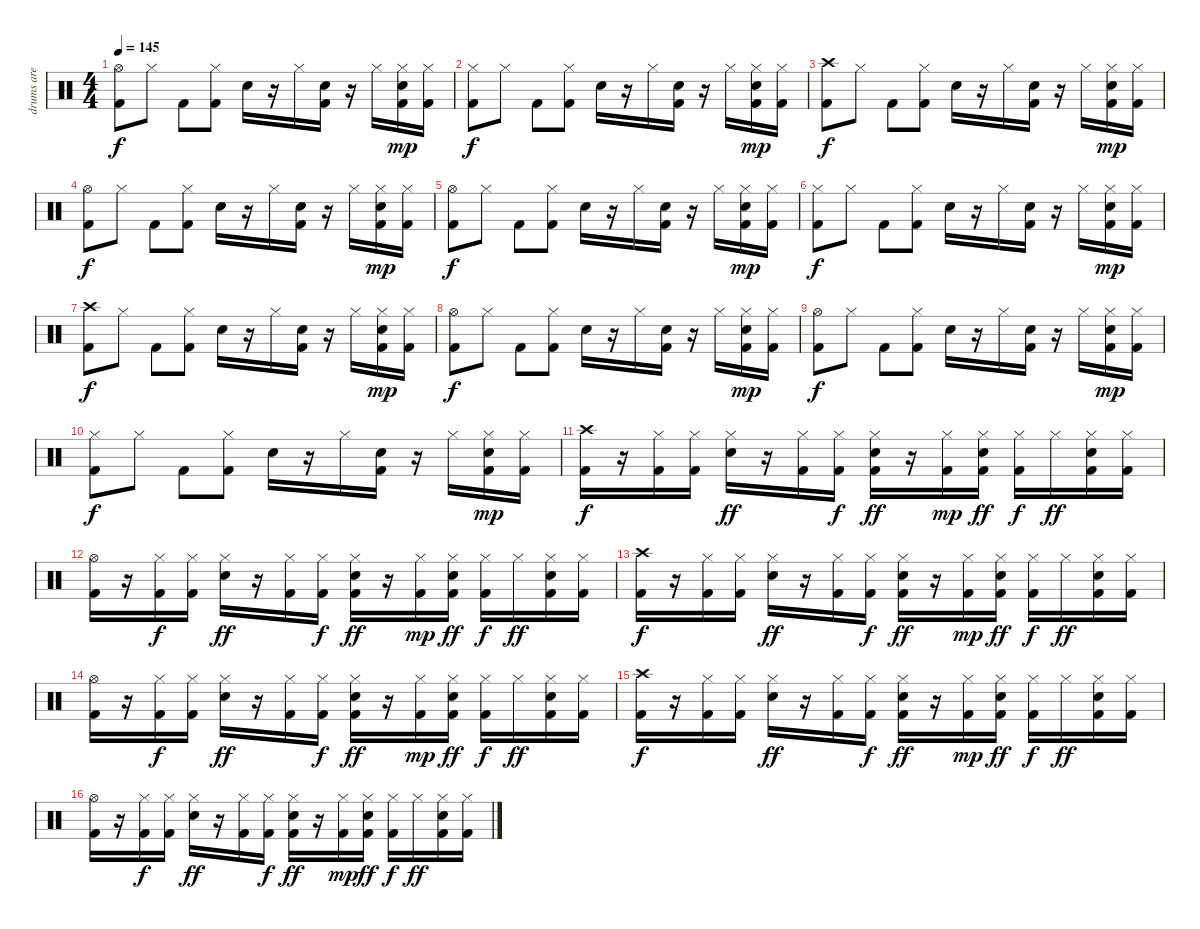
\track ("drums are cool   >.<" "drums are ") {instrument percussion}
\staff {score}
\articulation defaults
\ts (4 4)
\tempo 145
\clef neutral
\ks c
("Hi-Hat (open)" "Kick (hit) 2").8{dy f} "Hi-Hat (closed)".8 "Kick (hit) 2".8 ("Hi-Hat (closed)" "Kick (hit) 2").8 "Snare (hit) 2".16 r.16 "Hi-Hat (closed)".16 ("Snare (hit) 2" "Kick (hit) 2").16 r.16 "Hi-Hat (closed)".16 ("Hi-Hat (closed)" "Snare (hit) 2" "Kick (hit) 2").16{dy mp} ("Hi-Hat (closed)" "Kick (hit) 2").16 |
("Hi-Hat (closed)" "Kick (hit) 2").8{dy f} "Hi-Hat (closed)".8 "Kick (hit) 2".8 ("Hi-Hat (closed)" "Kick (hit) 2").8 "Snare (hit) 2".16 r.16 "Hi-Hat (closed)".16 ("Snare (hit) 2" "Kick (hit) 2").16 r.16 "Hi-Hat (closed)".16 ("Hi-Hat (closed)" "Snare (hit) 2" "Kick (hit) 2").16{dy mp} ("Hi-Hat (closed)" "Kick (hit) 2").16 |
("Crash high (hit)" "Kick (hit) 2").8{dy f} "Hi-Hat (closed)".8 "Kick (hit) 2".8 ("Hi-Hat (closed)" "Kick (hit) 2").8 "Snare (hit) 2".16 r.16 "Hi-Hat (closed)".16 ("Snare (hit) 2" "Kick (hit) 2").16 r.16 "Hi-Hat (closed)".16 ("Hi-Hat (closed)" "Snare (hit) 2" "Kick (hit) 2").16{dy mp} ("Hi-Hat (closed)" "Kick (hit) 2").16 |
("Hi-Hat (open)" "Kick (hit) 2").8{dy f} "Hi-Hat (closed)".8 "Kick (hit) 2".8 ("Hi-Hat (closed)" "Kick (hit) 2").8 "Snare (hit) 2".16 r.16 "Hi-Hat (closed)".16 ("Snare (hit) 2" "Kick (hit) 2").16 r.16 "Hi-Hat (closed)".16 ("Hi-Hat (closed)" "Snare (hit) 2" "Kick (hit) 2").16{dy mp} ("Hi-Hat (closed)" "Kick (hit) 2").16 |
("Hi-Hat (open)" "Kick (hit) 2").8{dy f} "Hi-Hat (closed)".8 "Kick (hit) 2".8 ("Hi-Hat (closed)" "Kick (hit) 2").8 "Snare (hit) 2".16 r.16 "Hi-Hat (closed)".16 ("Snare (hit) 2" "Kick (hit) 2").16 r.16 "Hi-Hat (closed)".16 ("Hi-Hat (closed)" "Snare (hit) 2" "Kick (hit) 2").16{dy mp} ("Hi-Hat (closed)" "Kick (hit) 2").16 |
("Hi-Hat (closed)" "Kick (hit) 2").8{dy f} "Hi-Hat (closed)".8 "Kick (hit) 2".8 ("Hi-Hat (closed)" "Kick (hit) 2").8 "Snare (hit) 2".16 r.16 "Hi-Hat (closed)".16 ("Snare (hit) 2" "Kick (hit) 2").16 r.16 "Hi-Hat (closed)".16 ("Hi-Hat (closed)" "Snare (hit) 2" "Kick (hit) 2").16{dy mp} ("Hi-Hat (closed)" "Kick (hit) 2").16 |
("Crash high (hit)" "Kick (hit) 2").8{dy f} "Hi-Hat (closed)".8 "Kick (hit) 2".8 ("Hi-Hat (closed)" "Kick (hit) 2").8 "Snare (hit) 2".16 r.16 "Hi-Hat (closed)".16 ("Snare (hit) 2" "Kick (hit) 2").16 r.16 "Hi-Hat (closed)".16 ("Hi-Hat (closed)" "Snare (hit) 2" "Kick (hit) 2").16{dy mp} ("Hi-Hat (closed)" "Kick (hit) 2").16 |
("Hi-Hat (open)" "Kick (hit) 2").8{dy f} "Hi-Hat (closed)".8 "Kick (hit) 2".8 ("Hi-Hat (closed)" "Kick (hit) 2").8 "Snare (hit) 2".16 r.16 "Hi-Hat (closed)".16 ("Snare (hit) 2" "Kick (hit) 2").16 r.16 "Hi-Hat (closed)".16 ("Hi-Hat (closed)" "Snare (hit) 2" "Kick (hit) 2").16{dy mp} ("Hi-Hat (closed)" "Kick (hit) 2").16 |
("Hi-Hat (open)" "Kick (hit) 2").8{dy f} "Hi-Hat (closed)".8 "Kick (hit) 2".8 ("Hi-Hat (closed)" "Kick (hit) 2").8 "Snare (hit) 2".16 r.16 "Hi-Hat (closed)".16 ("Snare (hit) 2" "Kick (hit) 2").16 r.16 "Hi-Hat (closed)".16 ("Hi-Hat (closed)" "Snare (hit) 2" "Kick (hit) 2").16{dy mp} ("Hi-Hat (closed)" "Kick (hit) 2").16 |
("Hi-Hat (closed)" "Kick (hit) 2").8{dy f} "Hi-Hat (closed)".8 "Kick (hit) 2".8 ("Hi-Hat (closed)" "Kick (hit) 2").8 "Snare (hit) 2".16 r.16 "Hi-Hat (closed)".16 ("Snare (hit) 2" "Kick (hit) 2").16 r.16 "Hi-Hat (closed)".16 ("Hi-Hat (closed)" "Snare (hit) 2" "Kick (hit) 2").16{dy mp} ("Hi-Hat (closed)" "Kick (hit) 2").16 |
("Crash high (hit)" "Kick (hit) 2").16{dy f} r.16 ("Hi-Hat (closed)" "Kick (hit) 2").16 ("Hi-Hat (closed)" "Kick (hit) 2").16 ("Hi-Hat (closed)" "Snare (hit)").16{dy ff} r.16 ("Hi-Hat (closed)" "Kick (hit) 2").16 ("Hi-Hat (closed)" "Kick (hit) 2").16{dy f} ("Hi-Hat (closed)" "Snare (hit) 2" "Kick (hit) 2").16{dy ff} r.16 ("Hi-Hat (closed)" "Kick (hit) 2").16{dy mp} ("Hi-Hat (closed)" "Snare (hit) 2" "Kick (hit) 2").16{dy ff} ("Hi-Hat (closed)" "Kick (hit) 2").16{dy f} "Hi-Hat (closed)".16{dy ff} ("Hi-Hat (closed)" "Snare (hit) 2" "Kick (hit) 2").16 ("Hi-Hat (closed)" "Kick (hit) 2").16 |
("Hi-Hat (open)" "Kick (hit) 2").16 r.16 ("Hi-Hat (closed)" "Kick (hit) 2").16{dy f} ("Hi-Hat (closed)" "Kick (hit) 2").16 ("Hi-Hat (closed)" "Snare (hit)").16{dy ff} r.16 ("Hi-Hat (closed)" "Kick (hit) 2").16 ("Hi-Hat (closed)" "Kick (hit) 2").16{dy f} ("Hi-Hat (closed)" "Snare (hit) 2" "Kick (hit) 2").16{dy ff} r.16 ("Hi-Hat (closed)" "Kick (hit) 2").16{dy mp} ("Hi-Hat (closed)" "Snare (hit) 2" "Kick (hit) 2").16{dy ff} ("Hi-Hat (closed)" "Kick (hit) 2").16{dy f} "Hi-Hat (closed)".16{dy ff} ("Hi-Hat (closed)" "Snare (hit) 2" "Kick (hit) 2").16 ("Hi-Hat (closed)" "Kick (hit) 2").16 |
("Crash high (hit)" "Kick (hit) 2").16{dy f} r.16 ("Hi-Hat (closed)" "Kick (hit) 2").16 ("Hi-Hat (closed)" "Kick (hit) 2").16 ("Hi-Hat (closed)" "Snare (hit)").16{dy ff} r.16 ("Hi-Hat (closed)" "Kick (hit) 2").16 ("Hi-Hat (closed)" "Kick (hit) 2").16{dy f} ("Hi-Hat (closed)" "Snare (hit) 2" "Kick (hit) 2").16{dy ff} r.16 ("Hi-Hat (closed)" "Kick (hit) 2").16{dy mp} ("Hi-Hat (closed)" "Snare (hit) 2" "Kick (hit) 2").16{dy ff} ("Hi-Hat (closed)" "Kick (hit) 2").16{dy f} "Hi-Hat (closed)".16{dy ff} ("Hi-Hat (closed)" "Snare (hit) 2" "Kick (hit) 2").16 ("Hi-Hat (closed)" "Kick (hit) 2").16 |
("Hi-Hat (open)" "Kick (hit) 2").16 r.16 ("Hi-Hat (closed)" "Kick (hit) 2").16{dy f} ("Hi-Hat (closed)" "Kick (hit) 2").16 ("Hi-Hat (closed)" "Snare (hit)").16{dy ff} r.16 ("Hi-Hat (closed)" "Kick (hit) 2").16 ("Hi-Hat (closed)" "Kick (hit) 2").16{dy f} ("Hi-Hat (closed)" "Snare (hit) 2" "Kick (hit) 2").16{dy ff} r.16 ("Hi-Hat (closed)" "Kick (hit) 2").16{dy mp} ("Hi-Hat (closed)" "Snare (hit) 2" "Kick (hit) 2").16{dy ff} ("Hi-Hat (closed)" "Kick (hit) 2").16{dy f} "Hi-Hat (closed)".16{dy ff} ("Hi-Hat (closed)" "Snare (hit) 2" "Kick (hit) 2").16 ("Hi-Hat (closed)" "Kick (hit) 2").16 |
("Crash high (hit)" "Kick (hit) 2").16{dy f} r.16 ("Hi-Hat (closed)" "Kick (hit) 2").16 ("Hi-Hat (closed)" "Kick (hit) 2").16 ("Hi-Hat (closed)" "Snare (hit)").16{dy ff} r.16 ("Hi-Hat (closed)" "Kick (hit) 2").16 ("Hi-Hat (closed)" "Kick (hit) 2").16{dy f} ("Hi-Hat (closed)" "Snare (hit) 2" "Kick (hit) 2").16{dy ff} r.16 ("Hi-Hat (closed)" "Kick (hit) 2").16{dy mp} ("Hi-Hat (closed)" "Snare (hit) 2" "Kick (hit) 2").16{dy ff} ("Hi-Hat (closed)" "Kick (hit) 2").16{dy f} "Hi-Hat (closed)".16{dy ff} ("Hi-Hat (closed)" "Snare (hit) 2" "Kick (hit) 2").16 ("Hi-Hat (closed)" "Kick (hit) 2").16 |
("Hi-Hat (open)" "Kick (hit) 2").16 r.16 ("Hi-Hat (closed)" "Kick (hit) 2").16{dy f} ("Hi-Hat (closed)" "Kick (hit) 2").16 ("Hi-Hat (closed)" "Snare (hit)").16{dy ff} r.16 ("Hi-Hat (closed)" "Kick (hit) 2").16 ("Hi-Hat (closed)" "Kick (hit) 2").16{dy f} ("Hi-Hat (closed)" "Snare (hit) 2" "Kick (hit) 2").16{dy ff} r.16 ("Hi-Hat (closed)" "Kick (hit) 2").16{dy mp} ("Hi-Hat (closed)" "Snare (hit) 2" "Kick (hit) 2").16{dy ff} ("Hi-Hat (closed)" "Kick (hit) 2").16{dy f} "Hi-Hat (closed)".16{dy ff} ("Hi-Hat (closed)" "Snare (hit) 2" "Kick (hit) 2").16 ("Hi-Hat (closed)" "Kick (hit) 2").16
